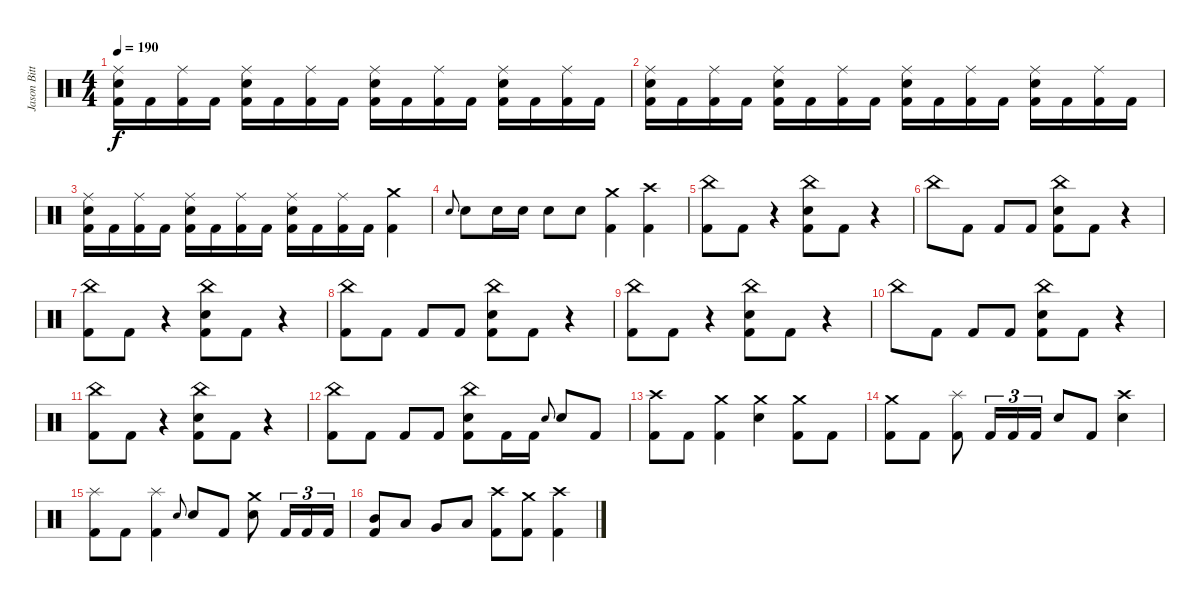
\track ("Jason Bittner" "Jason Bitt") {instrument percussion}
\staff {score}
\articulation defaults
\ts (4 4)
\tempo 190
\clef neutral
\ks c
("Ride (middle)" "Electric Snare (hit)" "Kick (hit) 2").16{dy f} "Kick (hit) 2".16 ("Ride (middle)" "Kick (hit) 2").16 "Kick (hit) 2".16 ("Ride (middle)" "Electric Snare (hit)" "Kick (hit) 2").16 "Kick (hit) 2".16 ("Ride (middle)" "Kick (hit) 2").16 "Kick (hit) 2".16 ("Ride (middle)" "Electric Snare (hit)" "Kick (hit) 2").16 "Kick (hit) 2".16 ("Ride (middle)" "Kick (hit) 2").16 "Kick (hit) 2".16 ("Ride (middle)" "Electric Snare (hit)" "Kick (hit) 2").16 "Kick (hit) 2".16 ("Ride (middle)" "Kick (hit) 2").16 "Kick (hit) 2".16 |
("Ride (middle)" "Electric Snare (hit)" "Kick (hit) 2").16 "Kick (hit) 2".16 ("Ride (middle)" "Kick (hit) 2").16 "Kick (hit) 2".16 ("Ride (middle)" "Electric Snare (hit)" "Kick (hit) 2").16 "Kick (hit) 2".16 ("Ride (middle)" "Kick (hit) 2").16 "Kick (hit) 2".16 ("Ride (middle)" "Electric Snare (hit)" "Kick (hit) 2").16 "Kick (hit) 2".16 ("Ride (middle)" "Kick (hit) 2").16 "Kick (hit) 2".16 ("Ride (middle)" "Electric Snare (hit)" "Kick (hit) 2").16 "Kick (hit) 2".16 ("Ride (middle)" "Kick (hit) 2").16 "Kick (hit) 2".16 |
("Ride (middle)" "Electric Snare (hit)" "Kick (hit) 2").16 "Kick (hit) 2".16 ("Ride (middle)" "Kick (hit) 2").16 "Kick (hit) 2".16 ("Ride (middle)" "Electric Snare (hit)" "Kick (hit) 2").16 "Kick (hit) 2".16 ("Ride (middle)" "Kick (hit) 2").16 "Kick (hit) 2".16 ("Ride (middle)" "Electric Snare (hit)" "Kick (hit) 2").16 "Kick (hit) 2".16 ("Ride (middle)" "Kick (hit) 2").16 "Kick (hit) 2".16 ("Crash medium (hit)" "Kick (hit) 2").4 |
"Electric Snare (hit)".8{gr onbeat} "Electric Snare (hit)".8 "Electric Snare (hit)".16 "Electric Snare (hit)".16 "Electric Snare (hit)".8 "Electric Snare (hit)".8 ("Crash medium (hit)" "Kick (hit) 2").4 ("Crash high (hit)" "Kick (hit) 2").4 |
("China (hit)" "Kick (hit) 2").8 "Kick (hit) 2".8 r.4 ("China (hit)" "Electric Snare (hit)" "Kick (hit) 2").8 "Kick (hit) 2".8 r.4 |
"China (hit)".8 "Kick (hit) 2".8 "Kick (hit) 2".8 "Kick (hit) 2".8 ("China (hit)" "Electric Snare (hit)" "Kick (hit) 2").8 "Kick (hit) 2".8 r.4 |
("China (hit)" "Kick (hit) 2").8 "Kick (hit) 2".8 r.4 ("China (hit)" "Electric Snare (hit)" "Kick (hit) 2").8 "Kick (hit) 2".8 r.4 |
("China (hit)" "Kick (hit) 2").8 "Kick (hit) 2".8 "Kick (hit) 2".8 "Kick (hit) 2".8 ("China (hit)" "Electric Snare (hit)" "Kick (hit) 2").8 "Kick (hit) 2".8 r.4 |
("China (hit)" "Kick (hit) 2").8 "Kick (hit) 2".8 r.4 ("China (hit)" "Electric Snare (hit)" "Kick (hit) 2").8 "Kick (hit) 2".8 r.4 |
"China (hit)".8 "Kick (hit) 2".8 "Kick (hit) 2".8 "Kick (hit) 2".8 ("China (hit)" "Electric Snare (hit)" "Kick (hit) 2").8 "Kick (hit) 2".8 r.4 |
("China (hit)" "Kick (hit) 2").8 "Kick (hit) 2".8 r.4 ("China (hit)" "Electric Snare (hit)" "Kick (hit) 2").8 "Kick (hit) 2".8 r.4 |
("China (hit)" "Kick (hit) 2").8 "Kick (hit) 2".8 "Kick (hit) 2".8 "Kick (hit) 2".8 ("China (hit)" "Electric Snare (hit)" "Kick (hit) 2").8 "Kick (hit) 2".16 "Kick (hit) 2".16 "Electric Snare (hit)".8{gr onbeat} "Electric Snare (hit)".8 "Kick (hit) 2".8 |
("Crash high (hit)" "Kick (hit) 2").8 "Kick (hit) 2".8 ("Crash medium (hit)" "Kick (hit) 2").4 ("Crash medium (hit)" "Electric Snare (hit)").4 ("Crash medium (hit)" "Kick (hit) 2").8 "Kick (hit) 2".8 |
("Crash medium (hit)" "Kick (hit) 2").8 "Kick (hit) 2".8 ("Splash (hit)" "Kick (hit) 2").8 "Kick (hit) 2".16{tu (3 2)} "Kick (hit) 2".16{tu (3 2)} "Kick (hit) 2".16{tu (3 2)} "Electric Snare (hit)".8 "Kick (hit) 2".8 ("Crash high (hit)" "Electric Snare (hit)").4 |
("Splash (hit)" "Kick (hit) 2").8 "Kick (hit) 2".8 ("Splash (hit)" "Kick (hit) 2").4 "Electric Snare (hit)".8{gr onbeat} "Electric Snare (hit)".8 "Kick (hit) 2".8 ("Crash medium (hit)" "Electric Snare (hit)").8 "Kick (hit) 2".16{tu (3 2)} "Kick (hit) 2".16{tu (3 2)} "Kick (hit) 2".16{tu (3 2)} |
("Mid Tom (hit)" "Kick (hit) 2").8 "Low Tom (hit)".8 "Very Low Tom (hit)".8 "Low Floor Tom (hit)".8 ("Crash high (hit)" "Kick (hit) 2").8 ("Crash medium (hit)" "Kick (hit) 2").8 ("Crash high (hit)" "Kick (hit) 2").4
